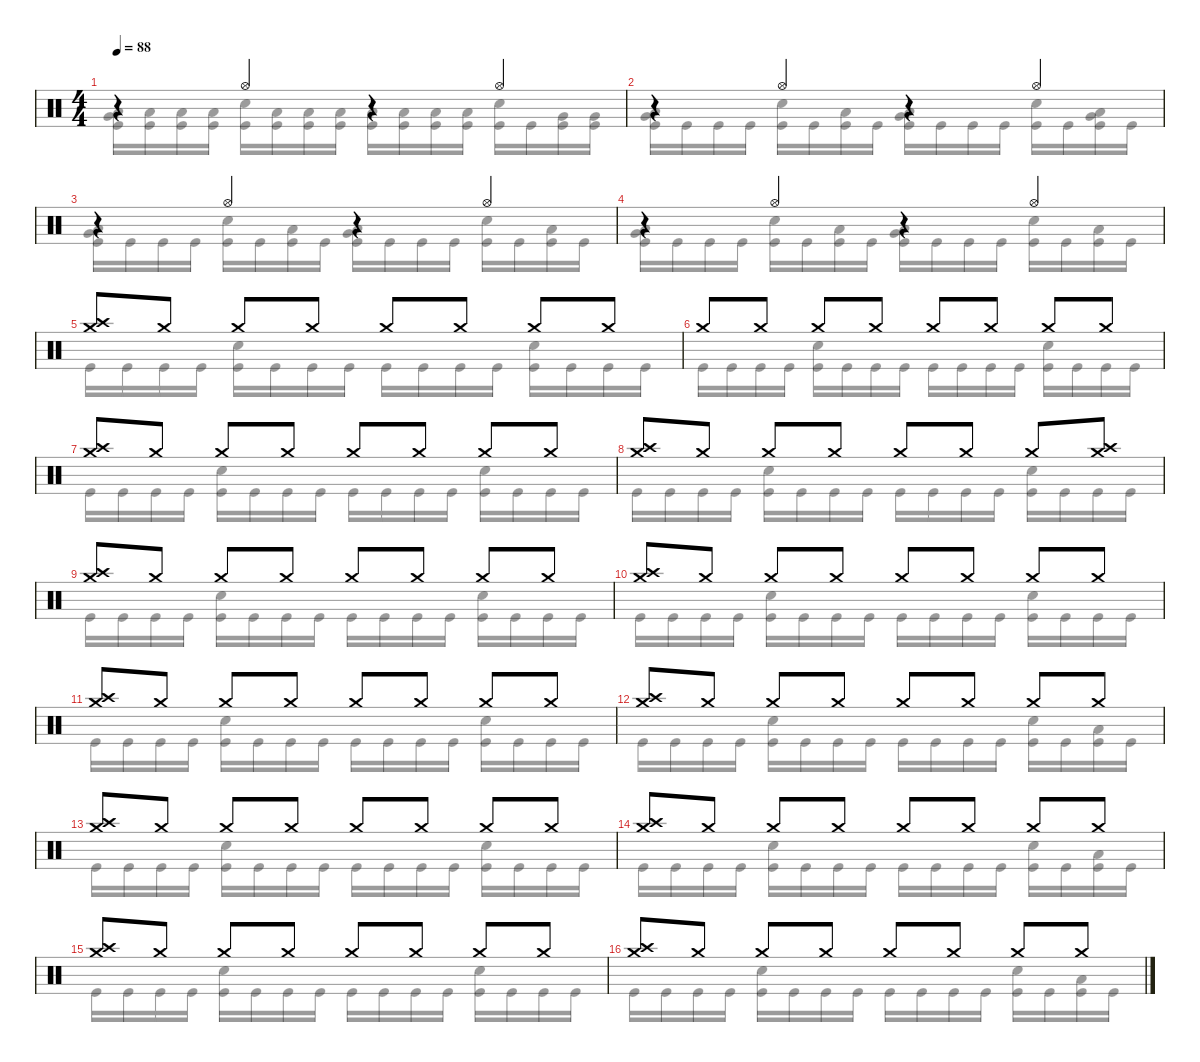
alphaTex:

\defaultSystemsLayout 4
\hideDynamics
\bracketExtendMode nobrackets
\singleTrackTrackNamePolicy hidden
\multiTrackTrackNamePolicy hidden
\firstSystemTrackNameMode fullname
\otherSystemsTrackNameOrientation horizontal
\track ("Drums" "drm.") {instrument percussion}
\staff {score}
\articulation defaults
\voice
\ts (4 4)
\tempo 88
\clef neutral
\ks c
r.4{dy f beam Up} "Hi-Hat (open)".4{beam Up} r.4{beam Up} "Hi-Hat (open)".4{beam Up} |
r.4{beam Up} "Hi-Hat (open)".4{beam Up} r.4{beam Up} "Hi-Hat (open)".4{beam Up} |
r.4{beam Up} "Hi-Hat (open)".4{beam Up} r.4{beam Up} "Hi-Hat (open)".4{beam Up} |
r.4{beam Up} "Hi-Hat (open)".4{beam Up} r.4{beam Up} "Hi-Hat (open)".4{beam Up} |
("Crash medium (hit)" "Crash high (hit)").8{beam Up} "Crash medium (hit)".8{beam Up} "Crash medium (hit)".8{dy mp beam Up} "Crash medium (hit)".8{dy f beam Up} "Crash medium (hit)".8{dy mp beam Up} "Crash medium (hit)".8{dy f beam Up} "Crash medium (hit)".8{dy mp beam Up} "Crash medium (hit)".8{dy f beam Up} |
"Crash medium (hit)".8{beam Up} "Crash medium (hit)".8{beam Up} "Crash medium (hit)".8{dy mp beam Up} "Crash medium (hit)".8{dy f beam Up} "Crash medium (hit)".8{dy mp beam Up} "Crash medium (hit)".8{dy f beam Up} "Crash medium (hit)".8{dy mp beam Up} "Crash medium (hit)".8{dy f beam Up} |
("Crash medium (hit)" "Crash high (hit)").8{beam Up} "Crash medium (hit)".8{beam Up} "Crash medium (hit)".8{dy mp beam Up} "Crash medium (hit)".8{dy f beam Up} "Crash medium (hit)".8{dy mp beam Up} "Crash medium (hit)".8{dy f beam Up} "Crash medium (hit)".8{dy mp beam Up} "Crash medium (hit)".8{dy f beam Up} |
("Crash medium (hit)" "Crash high (hit)").8{beam Up} "Crash medium (hit)".8{beam Up} "Crash medium (hit)".8{dy mp beam Up} "Crash medium (hit)".8{dy f beam Up} "Crash medium (hit)".8{dy mp beam Up} "Crash medium (hit)".8{dy f beam Up} "Crash medium (hit)".8{dy mp beam Up} ("Crash medium (hit)" "Crash high (hit)").8{dy f beam Up} |
("Crash medium (hit)" "Crash high (hit)").8{beam Up} "Crash medium (hit)".8{beam Up} "Crash medium (hit)".8{dy mp beam Up} "Crash medium (hit)".8{dy f beam Up} "Crash medium (hit)".8{dy mp beam Up} "Crash medium (hit)".8{dy f beam Up} "Crash medium (hit)".8{dy mp beam Up} "Crash medium (hit)".8{dy f beam Up} |
("Crash medium (hit)" "Crash high (hit)").8{beam Up} "Crash medium (hit)".8{beam Up} "Crash medium (hit)".8{dy mp beam Up} "Crash medium (hit)".8{dy f beam Up} "Crash medium (hit)".8{dy mp beam Up} "Crash medium (hit)".8{dy f beam Up} "Crash medium (hit)".8{dy mp beam Up} "Crash medium (hit)".8{dy f beam Up} |
("Crash medium (hit)" "Crash high (hit)").8{beam Up} "Crash medium (hit)".8{beam Up} "Crash medium (hit)".8{dy mp beam Up} "Crash medium (hit)".8{dy f beam Up} "Crash medium (hit)".8{dy mp beam Up} "Crash medium (hit)".8{dy f beam Up} "Crash medium (hit)".8{dy mp beam Up} "Crash medium (hit)".8{dy f beam Up} |
("Crash medium (hit)" "Crash high (hit)").8{beam Up} "Crash medium (hit)".8{beam Up} "Crash medium (hit)".8{dy mp beam Up} "Crash medium (hit)".8{dy f beam Up} "Crash medium (hit)".8{dy mp beam Up} "Crash medium (hit)".8{dy f beam Up} "Crash medium (hit)".8{dy mp beam Up} "Crash medium (hit)".8{dy f beam Up} |
("Crash medium (hit)" "Crash high (hit)").8{beam Up} "Crash medium (hit)".8{beam Up} "Crash medium (hit)".8{dy mp beam Up} "Crash medium (hit)".8{dy f beam Up} "Crash medium (hit)".8{dy mp beam Up} "Crash medium (hit)".8{dy f beam Up} "Crash medium (hit)".8{dy mp beam Up} "Crash medium (hit)".8{dy f beam Up} |
("Crash medium (hit)" "Crash high (hit)").8{beam Up} "Crash medium (hit)".8{beam Up} "Crash medium (hit)".8{dy mp beam Up} "Crash medium (hit)".8{dy f beam Up} "Crash medium (hit)".8{dy mp beam Up} "Crash medium (hit)".8{dy f beam Up} "Crash medium (hit)".8{dy mp beam Up} "Crash medium (hit)".8{dy f beam Up} |
("Crash medium (hit)" "Crash high (hit)").8{beam Up} "Crash medium (hit)".8{beam Up} "Crash medium (hit)".8{dy mp beam Up} "Crash medium (hit)".8{dy f beam Up} "Crash medium (hit)".8{dy mp beam Up} "Crash medium (hit)".8{dy f beam Up} "Crash medium (hit)".8{dy mp beam Up} "Crash medium (hit)".8{dy f beam Up} |
("Crash medium (hit)" "Crash high (hit)").8{beam Up} "Crash medium (hit)".8{beam Up} "Crash medium (hit)".8{dy mp beam Up} "Crash medium (hit)".8{dy f beam Up} "Crash medium (hit)".8{dy mp beam Up} "Crash medium (hit)".8{dy f beam Up} "Crash medium (hit)".8{dy mp beam Up} "Crash medium (hit)".8{dy f beam Up}
\voice
\clef neutral
\ottava regular
\simile none
\ks c
("Very Low Tom (hit)" "Low Floor Tom (hit)" "Kick (hit)").16{dy f beam Down} ("Low Floor Tom (hit)" "Kick (hit)").16{beam Down} ("Low Floor Tom (hit)" "Kick (hit)").16{beam Down} ("Low Floor Tom (hit)" "Kick (hit)").16{beam Down} ("Snare (hit) 2" "Kick (hit)").16{beam Down} ("Low Floor Tom (hit)" "Kick (hit)").16{beam Down} ("Low Floor Tom (hit)" "Kick (hit)").16{beam Down} ("Low Floor Tom (hit)" "Kick (hit)").16{beam Down} ("Low Floor Tom (hit)" "Kick (hit)").16{beam Down} ("Low Floor Tom (hit)" "Kick (hit)").16{beam Down} ("Low Floor Tom (hit)" "Kick (hit)").16{beam Down} ("Low Floor Tom (hit)" "Kick (hit)").16{beam Down} ("Snare (hit) 2" "Kick (hit)").16{beam Down} "Kick (hit)".16{beam Down} ("Very Low Tom (hit)" "Kick (hit)").16{beam Down} ("Very Low Tom (hit)" "Kick (hit)").16{beam Down} |
("Very Low Tom (hit)" "Low Floor Tom (hit)" "Kick (hit)").16{beam Down} "Kick (hit)".16{beam Down} "Kick (hit)".16{beam Down} "Kick (hit)".16{beam Down} ("Snare (hit) 2" "Kick (hit)").16{beam Down} "Kick (hit)".16{beam Down} ("Low Tom (hit)" "Kick (hit)").16{beam Down} "Kick (hit)".16{beam Down} ("Very Low Tom (hit)" "Low Floor Tom (hit)" "Kick (hit)").16{beam Down} "Kick (hit)".16{beam Down} "Kick (hit)".16{beam Down} "Kick (hit)".16{beam Down} ("Snare (hit) 2" "Kick (hit)").16{beam Down} "Kick (hit)".16{beam Down} ("Very Low Tom (hit)" "Low Tom (hit)" "Kick (hit)").16{beam Down} "Kick (hit)".16{beam Down} |
("Very Low Tom (hit)" "Low Floor Tom (hit)" "Kick (hit)").16{beam Down} "Kick (hit)".16{beam Down} "Kick (hit)".16{beam Down} "Kick (hit)".16{beam Down} ("Snare (hit) 2" "Kick (hit)").16{beam Down} "Kick (hit)".16{beam Down} ("Low Tom (hit)" "Kick (hit)").16{beam Down} "Kick (hit)".16{beam Down} ("Very Low Tom (hit)" "Low Floor Tom (hit)" "Kick (hit)").16{beam Down} "Kick (hit)".16{beam Down} "Kick (hit)".16{beam Down} "Kick (hit)".16{beam Down} ("Snare (hit) 2" "Kick (hit)").16{beam Down} "Kick (hit)".16{beam Down} ("Low Tom (hit)" "Kick (hit)").16{beam Down} "Kick (hit)".16{beam Down} |
("Very Low Tom (hit)" "Low Floor Tom (hit)" "Kick (hit)").16{beam Down} "Kick (hit)".16{beam Down} "Kick (hit)".16{beam Down} "Kick (hit)".16{beam Down} ("Snare (hit) 2" "Kick (hit)").16{beam Down} "Kick (hit)".16{beam Down} ("Low Tom (hit)" "Kick (hit)").16{beam Down} "Kick (hit)".16{beam Down} ("Very Low Tom (hit)" "Low Floor Tom (hit)" "Kick (hit)").16{beam Down} "Kick (hit)".16{beam Down} "Kick (hit)".16{beam Down} "Kick (hit)".16{beam Down} ("Snare (hit) 2" "Kick (hit)").16{beam Down} "Kick (hit)".16{beam Down} ("Low Tom (hit)" "Kick (hit)").16{beam Down} "Kick (hit)".16{beam Down} |
"Kick (hit)".16{beam Down} "Kick (hit)".16{beam Down} "Kick (hit)".16{beam Down} "Kick (hit)".16{beam Down} ("Snare (hit) 2" "Kick (hit)").16{beam Down} "Kick (hit)".16{beam Down} "Kick (hit)".16{beam Down} "Kick (hit)".16{beam Down} "Kick (hit)".16{beam Down} "Kick (hit)".16{beam Down} "Kick (hit)".16{beam Down} "Kick (hit)".16{beam Down} ("Snare (hit) 2" "Kick (hit)").16{beam Down} "Kick (hit)".16{beam Down} "Kick (hit)".16{beam Down} "Kick (hit)".16{beam Down} |
"Kick (hit)".16{beam Down} "Kick (hit)".16{beam Down} "Kick (hit)".16{beam Down} "Kick (hit)".16{beam Down} ("Snare (hit) 2" "Kick (hit)").16{beam Down} "Kick (hit)".16{beam Down} "Kick (hit)".16{beam Down} "Kick (hit)".16{beam Down} "Kick (hit)".16{beam Down} "Kick (hit)".16{beam Down} "Kick (hit)".16{beam Down} "Kick (hit)".16{beam Down} ("Snare (hit) 2" "Kick (hit)").16{beam Down} "Kick (hit)".16{beam Down} "Kick (hit)".16{beam Down} "Kick (hit)".16{beam Down} |
"Kick (hit)".16{beam Down} "Kick (hit)".16{beam Down} "Kick (hit)".16{beam Down} "Kick (hit)".16{beam Down} ("Snare (hit) 2" "Kick (hit)").16{beam Down} "Kick (hit)".16{beam Down} "Kick (hit)".16{beam Down} "Kick (hit)".16{beam Down} "Kick (hit)".16{beam Down} "Kick (hit)".16{beam Down} "Kick (hit)".16{beam Down} "Kick (hit)".16{beam Down} ("Snare (hit) 2" "Kick (hit)").16{beam Down} "Kick (hit)".16{beam Down} "Kick (hit)".16{beam Down} "Kick (hit)".16{beam Down} |
"Kick (hit)".16{beam Down} "Kick (hit)".16{beam Down} "Kick (hit)".16{beam Down} "Kick (hit)".16{beam Down} ("Snare (hit) 2" "Kick (hit)").16{beam Down} "Kick (hit)".16{beam Down} "Kick (hit)".16{beam Down} "Kick (hit)".16{beam Down} "Kick (hit)".16{beam Down} "Kick (hit)".16{beam Down} "Kick (hit)".16{beam Down} "Kick (hit)".16{beam Down} ("Snare (hit) 2" "Kick (hit)").16{beam Down} "Kick (hit)".16{beam Down} "Kick (hit)".16{beam Down} "Kick (hit)".16{beam Down} |
"Kick (hit)".16{beam Down} "Kick (hit)".16{beam Down} "Kick (hit)".16{beam Down} "Kick (hit)".16{beam Down} ("Snare (hit) 2" "Kick (hit)").16{beam Down} "Kick (hit)".16{beam Down} "Kick (hit)".16{beam Down} "Kick (hit)".16{beam Down} "Kick (hit)".16{beam Down} "Kick (hit)".16{beam Down} "Kick (hit)".16{beam Down} "Kick (hit)".16{beam Down} ("Snare (hit) 2" "Kick (hit)").16{beam Down} "Kick (hit)".16{beam Down} "Kick (hit)".16{beam Down} "Kick (hit)".16{beam Down} |
"Kick (hit)".16{beam Down} "Kick (hit)".16{beam Down} "Kick (hit)".16{beam Down} "Kick (hit)".16{beam Down} ("Snare (hit) 2" "Kick (hit)").16{beam Down} "Kick (hit)".16{beam Down} "Kick (hit)".16{beam Down} "Kick (hit)".16{beam Down} "Kick (hit)".16{beam Down} "Kick (hit)".16{beam Down} "Kick (hit)".16{beam Down} "Kick (hit)".16{beam Down} ("Snare (hit) 2" "Kick (hit)").16{beam Down} "Kick (hit)".16{beam Down} "Kick (hit)".16{beam Down} "Kick (hit)".16{beam Down} |
"Kick (hit)".16{beam Down} "Kick (hit)".16{beam Down} "Kick (hit)".16{beam Down} "Kick (hit)".16{beam Down} ("Snare (hit) 2" "Kick (hit)").16{beam Down} "Kick (hit)".16{beam Down} "Kick (hit)".16{beam Down} "Kick (hit)".16{beam Down} "Kick (hit)".16{beam Down} "Kick (hit)".16{beam Down} "Kick (hit)".16{beam Down} "Kick (hit)".16{beam Down} ("Snare (hit) 2" "Kick (hit)").16{beam Down} "Kick (hit)".16{beam Down} "Kick (hit)".16{beam Down} "Kick (hit)".16{beam Down} |
"Kick (hit)".16{beam Down} "Kick (hit)".16{beam Down} "Kick (hit)".16{beam Down} "Kick (hit)".16{beam Down} ("Snare (hit) 2" "Kick (hit)").16{beam Down} "Kick (hit)".16{beam Down} "Kick (hit)".16{beam Down} "Kick (hit)".16{beam Down} "Kick (hit)".16{beam Down} "Kick (hit)".16{beam Down} "Kick (hit)".16{beam Down} "Kick (hit)".16{beam Down} ("Snare (hit) 2" "Kick (hit)").16{beam Down} "Kick (hit)".16{beam Down} ("Low Floor Tom (hit)" "Kick (hit)").16{beam Down} "Kick (hit)".16{beam Down} |
"Kick (hit)".16{beam Down} "Kick (hit)".16{beam Down} "Kick (hit)".16{beam Down} "Kick (hit)".16{beam Down} ("Snare (hit) 2" "Kick (hit)").16{beam Down} "Kick (hit)".16{beam Down} "Kick (hit)".16{beam Down} "Kick (hit)".16{beam Down} "Kick (hit)".16{beam Down} "Kick (hit)".16{beam Down} "Kick (hit)".16{beam Down} "Kick (hit)".16{beam Down} ("Snare (hit) 2" "Kick (hit)").16{beam Down} "Kick (hit)".16{beam Down} "Kick (hit)".16{beam Down} "Kick (hit)".16{beam Down} |
"Kick (hit)".16{beam Down} "Kick (hit)".16{beam Down} "Kick (hit)".16{beam Down} "Kick (hit)".16{beam Down} ("Snare (hit) 2" "Kick (hit)").16{beam Down} "Kick (hit)".16{beam Down} "Kick (hit)".16{beam Down} "Kick (hit)".16{beam Down} "Kick (hit)".16{beam Down} "Kick (hit)".16{beam Down} "Kick (hit)".16{beam Down} "Kick (hit)".16{beam Down} ("Snare (hit) 2" "Kick (hit)").16{beam Down} "Kick (hit)".16{beam Down} ("Low Floor Tom (hit)" "Kick (hit)").16{beam Down} "Kick (hit)".16{beam Down} |
"Kick (hit)".16{beam Down} "Kick (hit)".16{beam Down} "Kick (hit)".16{beam Down} "Kick (hit)".16{beam Down} ("Snare (hit) 2" "Kick (hit)").16{beam Down} "Kick (hit)".16{beam Down} "Kick (hit)".16{beam Down} "Kick (hit)".16{beam Down} "Kick (hit)".16{beam Down} "Kick (hit)".16{beam Down} "Kick (hit)".16{beam Down} "Kick (hit)".16{beam Down} ("Snare (hit) 2" "Kick (hit)").16{beam Down} "Kick (hit)".16{beam Down} "Kick (hit)".16{beam Down} "Kick (hit)".16{beam Down} |
"Kick (hit)".16{beam Down} "Kick (hit)".16{beam Down} "Kick (hit)".16{beam Down} "Kick (hit)".16{beam Down} ("Snare (hit) 2" "Kick (hit)").16{beam Down} "Kick (hit)".16{beam Down} "Kick (hit)".16{beam Down} "Kick (hit)".16{beam Down} "Kick (hit)".16{beam Down} "Kick (hit)".16{beam Down} "Kick (hit)".16{beam Down} "Kick (hit)".16{beam Down} ("Snare (hit) 2" "Kick (hit)").16{beam Down} "Kick (hit)".16{beam Down} ("Low Floor Tom (hit)" "Kick (hit)").16{beam Down} "Kick (hit)".16{beam Down}
